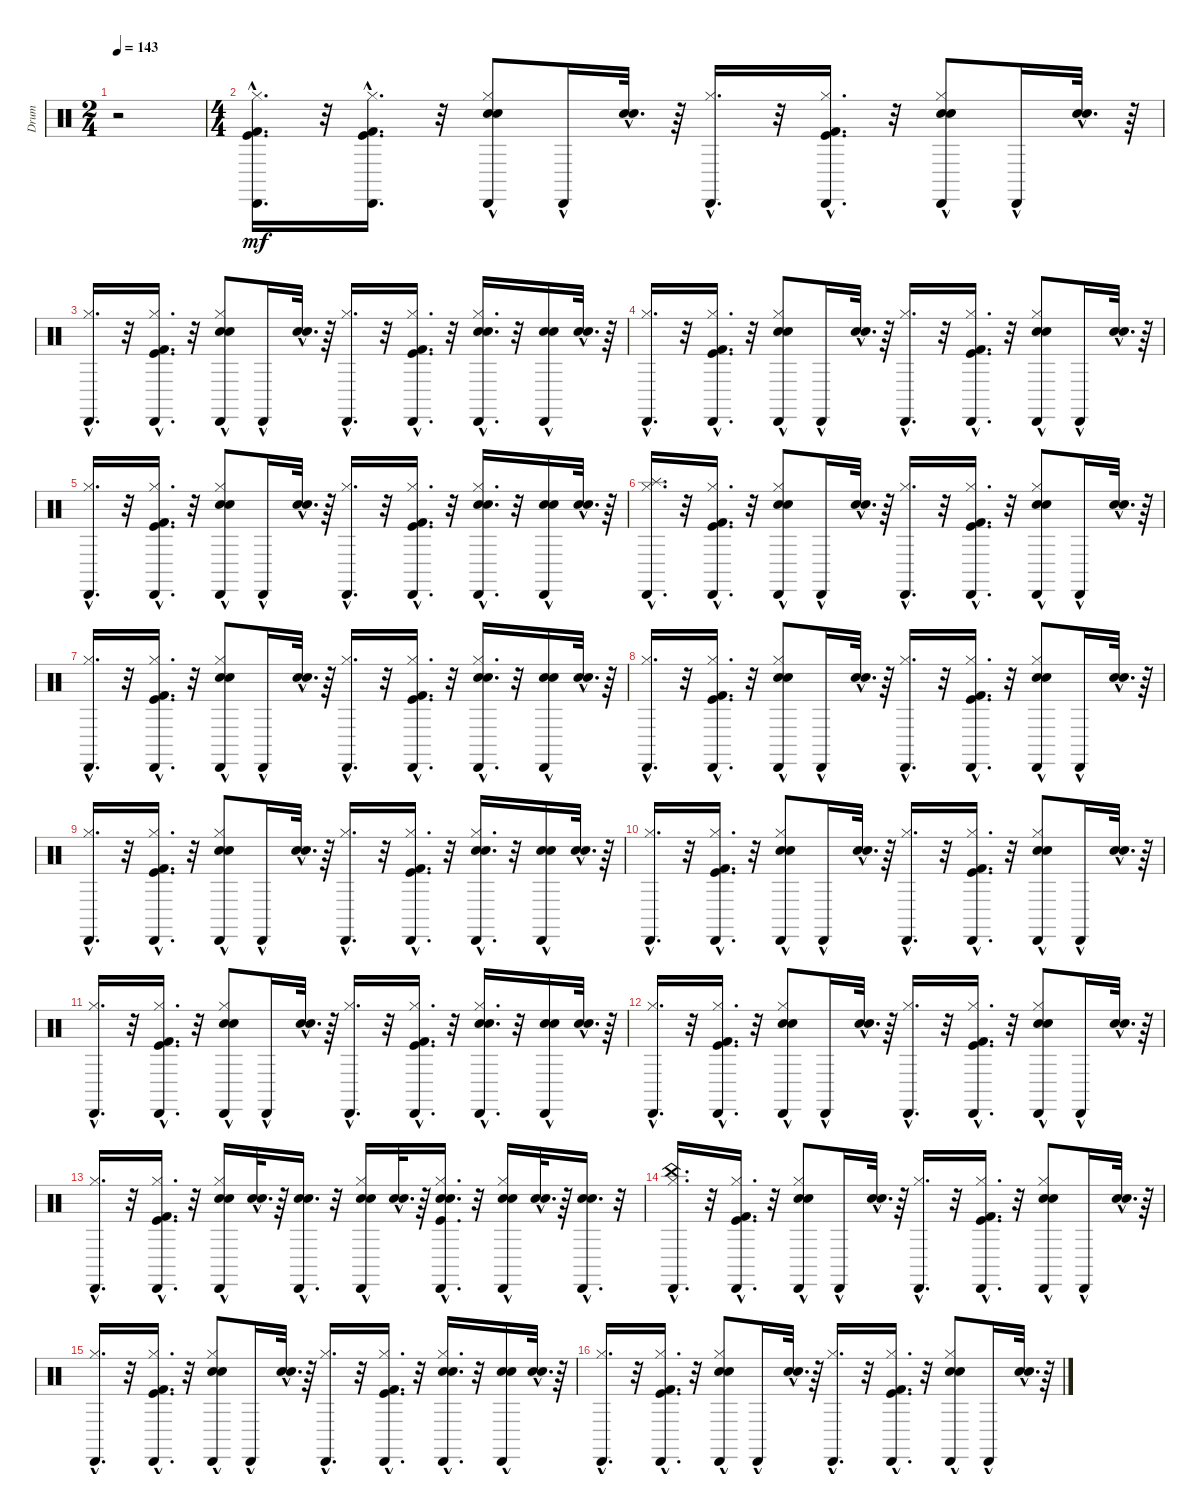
\track ("Drum" "Drum") {instrument percussion}
\staff {score}
\articulation defaults
\ts (2 4)
\tempo 143
\clef neutral
\ks c
r.2{dy mf} |
\ts (4 4)
("Kick (hit) 2"{hac} "Cabasa (hit)"{hac} "Kick (hit)"{hac} "Hi-Hat (closed)"{hac}).16{d} r.32 ("Kick (hit) 2"{hac} "Cabasa (hit)"{hac} "Kick (hit)"{hac} "Hi-Hat (closed)"{hac}).16{d} r.32 ("Electric Snare (hit)" "Cabasa (hit)"{hac} "Snare (hit) 2" "Hi-Hat (closed)").8 "Cabasa (hit)"{hac}.16 ("Electric Snare (hit)"{hac} "Snare (hit) 2"{hac}).32{d} r.64 ("Cabasa (hit)"{hac} "Hi-Hat (closed)"{hac}).16{d} r.32 ("Kick (hit) 2"{hac} "Cabasa (hit)"{hac} "Kick (hit)"{hac} "Hi-Hat (closed)"{hac}).16{d} r.32 ("Electric Snare (hit)" "Cabasa (hit)"{hac} "Snare (hit) 2" "Hi-Hat (closed)").8 "Cabasa (hit)"{hac}.16 ("Electric Snare (hit)"{hac} "Snare (hit) 2"{hac}).32{d} r.64 |
("Cabasa (hit)"{hac} "Hi-Hat (closed)"{hac}).16{d} r.32 ("Kick (hit) 2"{hac} "Cabasa (hit)"{hac} "Hi-Hat (closed)"{hac} "Kick (hit)"{hac}).16{d} r.32 ("Electric Snare (hit)" "Cabasa (hit)"{hac} "Hi-Hat (closed)" "Snare (hit) 2").8 "Cabasa (hit)"{hac}.16 ("Electric Snare (hit)"{hac} "Snare (hit) 2"{hac}).32{d} r.64 ("Cabasa (hit)"{hac} "Hi-Hat (closed)"{hac}).16{d} r.32 ("Kick (hit) 2"{hac} "Cabasa (hit)"{hac} "Hi-Hat (closed)"{hac} "Kick (hit)"{hac}).16{d} r.32 ("Electric Snare (hit)"{hac} "Cabasa (hit)"{hac} "Hi-Hat (closed)"{hac} "Snare (hit) 2"{hac}).16{d} r.32 ("Electric Snare (hit)"{hac} "Cabasa (hit)"{hac} "Snare (hit) 2"{hac}).16 ("Electric Snare (hit)"{hac} "Snare (hit) 2"{hac}).32{d} r.64 |
("Cabasa (hit)"{hac} "Hi-Hat (closed)"{hac}).16{d} r.32 ("Kick (hit) 2"{hac} "Cabasa (hit)"{hac} "Kick (hit)"{hac} "Hi-Hat (closed)"{hac}).16{d} r.32 ("Electric Snare (hit)" "Cabasa (hit)"{hac} "Snare (hit) 2" "Hi-Hat (closed)").8 "Cabasa (hit)"{hac}.16 ("Electric Snare (hit)"{hac} "Snare (hit) 2"{hac}).32{d} r.64 ("Cabasa (hit)"{hac} "Hi-Hat (closed)"{hac}).16{d} r.32 ("Kick (hit) 2"{hac} "Cabasa (hit)"{hac} "Kick (hit)"{hac} "Hi-Hat (closed)"{hac}).16{d} r.32 ("Electric Snare (hit)" "Cabasa (hit)"{hac} "Snare (hit) 2" "Hi-Hat (closed)").8 "Cabasa (hit)"{hac}.16 ("Electric Snare (hit)"{hac} "Snare (hit) 2"{hac}).32{d} r.64 |
("Cabasa (hit)"{hac} "Hi-Hat (closed)"{hac}).16{d} r.32 ("Kick (hit) 2"{hac} "Cabasa (hit)"{hac} "Kick (hit)"{hac} "Hi-Hat (closed)"{hac}).16{d} r.32 ("Electric Snare (hit)" "Cabasa (hit)"{hac} "Snare (hit) 2" "Hi-Hat (closed)").8 "Cabasa (hit)"{hac}.16 ("Electric Snare (hit)"{hac} "Snare (hit) 2"{hac}).32{d} r.64 ("Cabasa (hit)"{hac} "Hi-Hat (closed)"{hac}).16{d} r.32 ("Kick (hit) 2"{hac} "Cabasa (hit)"{hac} "Kick (hit)"{hac} "Hi-Hat (closed)"{hac}).16{d} r.32 ("Electric Snare (hit)"{hac} "Cabasa (hit)"{hac} "Snare (hit) 2"{hac} "Hi-Hat (closed)"{hac}).16{d} r.32 ("Electric Snare (hit)"{hac} "Cabasa (hit)"{hac} "Snare (hit) 2"{hac}).16 ("Electric Snare (hit)"{hac} "Snare (hit) 2"{hac}).32{d} r.64 |
("Splash (hit)"{hac} "Hi-Hat (closed)"{hac} "Cabasa (hit)"{hac}).16{d} r.32 ("Hi-Hat (closed)"{hac} "Kick (hit)"{hac} "Cabasa (hit)"{hac} "Kick (hit) 2"{hac}).16{d} r.32 ("Hi-Hat (closed)" "Snare (hit) 2" "Cabasa (hit)"{hac} "Electric Snare (hit)").8 "Cabasa (hit)"{hac}.16 ("Snare (hit) 2"{hac} "Electric Snare (hit)"{hac}).32{d} r.64 ("Hi-Hat (closed)"{hac} "Cabasa (hit)"{hac}).16{d} r.32 ("Hi-Hat (closed)"{hac} "Kick (hit)"{hac} "Cabasa (hit)"{hac} "Kick (hit) 2"{hac}).16{d} r.32 ("Hi-Hat (closed)" "Snare (hit) 2" "Cabasa (hit)"{hac} "Electric Snare (hit)").8 "Cabasa (hit)"{hac}.16 ("Snare (hit) 2"{hac} "Electric Snare (hit)"{hac}).32{d} r.64 |
("Hi-Hat (closed)"{hac} "Cabasa (hit)"{hac}).16{d} r.32 ("Kick (hit)"{hac} "Hi-Hat (closed)"{hac} "Cabasa (hit)"{hac} "Kick (hit) 2"{hac}).16{d} r.32 ("Snare (hit) 2" "Hi-Hat (closed)" "Cabasa (hit)"{hac} "Electric Snare (hit)").8 "Cabasa (hit)"{hac}.16 ("Snare (hit) 2"{hac} "Electric Snare (hit)"{hac}).32{d} r.64 ("Hi-Hat (closed)"{hac} "Cabasa (hit)"{hac}).16{d} r.32 ("Kick (hit)"{hac} "Hi-Hat (closed)"{hac} "Cabasa (hit)"{hac} "Kick (hit) 2"{hac}).16{d} r.32 ("Snare (hit) 2"{hac} "Hi-Hat (closed)"{hac} "Cabasa (hit)"{hac} "Electric Snare (hit)"{hac}).16{d} r.32 ("Snare (hit) 2"{hac} "Cabasa (hit)"{hac} "Electric Snare (hit)"{hac}).16 ("Snare (hit) 2"{hac} "Electric Snare (hit)"{hac}).32{d} r.64 |
("Hi-Hat (closed)"{hac} "Cabasa (hit)"{hac}).16{d} r.32 ("Hi-Hat (closed)"{hac} "Kick (hit)"{hac} "Cabasa (hit)"{hac} "Kick (hit) 2"{hac}).16{d} r.32 ("Hi-Hat (closed)" "Snare (hit) 2" "Cabasa (hit)"{hac} "Electric Snare (hit)").8 "Cabasa (hit)"{hac}.16 ("Snare (hit) 2"{hac} "Electric Snare (hit)"{hac}).32{d} r.64 ("Hi-Hat (closed)"{hac} "Cabasa (hit)"{hac}).16{d} r.32 ("Hi-Hat (closed)"{hac} "Kick (hit)"{hac} "Cabasa (hit)"{hac} "Kick (hit) 2"{hac}).16{d} r.32 ("Hi-Hat (closed)" "Snare (hit) 2" "Cabasa (hit)"{hac} "Electric Snare (hit)").8 "Cabasa (hit)"{hac}.16 ("Snare (hit) 2"{hac} "Electric Snare (hit)"{hac}).32{d} r.64 |
("Hi-Hat (closed)"{hac} "Cabasa (hit)"{hac}).16{d} r.32 ("Hi-Hat (closed)"{hac} "Kick (hit)"{hac} "Cabasa (hit)"{hac} "Kick (hit) 2"{hac}).16{d} r.32 ("Hi-Hat (closed)" "Snare (hit) 2" "Cabasa (hit)"{hac} "Electric Snare (hit)").8 "Cabasa (hit)"{hac}.16 ("Snare (hit) 2"{hac} "Electric Snare (hit)"{hac}).32{d} r.64 ("Hi-Hat (closed)"{hac} "Cabasa (hit)"{hac}).16{d} r.32 ("Hi-Hat (closed)"{hac} "Kick (hit)"{hac} "Cabasa (hit)"{hac} "Kick (hit) 2"{hac}).16{d} r.32 ("Hi-Hat (closed)"{hac} "Snare (hit) 2"{hac} "Cabasa (hit)"{hac} "Electric Snare (hit)"{hac}).16{d} r.32 ("Snare (hit) 2"{hac} "Cabasa (hit)"{hac} "Electric Snare (hit)"{hac}).16 ("Snare (hit) 2"{hac} "Electric Snare (hit)"{hac}).32{d} r.64 |
("Cabasa (hit)"{hac} "Hi-Hat (closed)"{hac}).16{d} r.32 ("Kick (hit) 2"{hac} "Cabasa (hit)"{hac} "Kick (hit)"{hac} "Hi-Hat (closed)"{hac}).16{d} r.32 ("Electric Snare (hit)" "Cabasa (hit)"{hac} "Snare (hit) 2" "Hi-Hat (closed)").8 "Cabasa (hit)"{hac}.16 ("Electric Snare (hit)"{hac} "Snare (hit) 2"{hac}).32{d} r.64 ("Cabasa (hit)"{hac} "Hi-Hat (closed)"{hac}).16{d} r.32 ("Kick (hit) 2"{hac} "Cabasa (hit)"{hac} "Kick (hit)"{hac} "Hi-Hat (closed)"{hac}).16{d} r.32 ("Electric Snare (hit)" "Cabasa (hit)"{hac} "Snare (hit) 2" "Hi-Hat (closed)").8 "Cabasa (hit)"{hac}.16 ("Electric Snare (hit)"{hac} "Snare (hit) 2"{hac}).32{d} r.64 |
("Cabasa (hit)"{hac} "Hi-Hat (closed)"{hac}).16{d} r.32 ("Kick (hit) 2"{hac} "Cabasa (hit)"{hac} "Hi-Hat (closed)"{hac} "Kick (hit)"{hac}).16{d} r.32 ("Electric Snare (hit)" "Cabasa (hit)"{hac} "Hi-Hat (closed)" "Snare (hit) 2").8 "Cabasa (hit)"{hac}.16 ("Electric Snare (hit)"{hac} "Snare (hit) 2"{hac}).32{d} r.64 ("Cabasa (hit)"{hac} "Hi-Hat (closed)"{hac}).16{d} r.32 ("Kick (hit) 2"{hac} "Cabasa (hit)"{hac} "Hi-Hat (closed)"{hac} "Kick (hit)"{hac}).16{d} r.32 ("Electric Snare (hit)"{hac} "Cabasa (hit)"{hac} "Hi-Hat (closed)"{hac} "Snare (hit) 2"{hac}).16{d} r.32 ("Electric Snare (hit)"{hac} "Cabasa (hit)"{hac} "Snare (hit) 2"{hac}).16 ("Electric Snare (hit)"{hac} "Snare (hit) 2"{hac}).32{d} r.64 |
("Cabasa (hit)"{hac} "Hi-Hat (closed)"{hac}).16{d} r.32 ("Kick (hit) 2"{hac} "Cabasa (hit)"{hac} "Kick (hit)"{hac} "Hi-Hat (closed)"{hac}).16{d} r.32 ("Electric Snare (hit)" "Cabasa (hit)"{hac} "Snare (hit) 2" "Hi-Hat (closed)").8 "Cabasa (hit)"{hac}.16 ("Electric Snare (hit)"{hac} "Snare (hit) 2"{hac}).32{d} r.64 ("Cabasa (hit)"{hac} "Hi-Hat (closed)"{hac}).16{d} r.32 ("Kick (hit) 2"{hac} "Cabasa (hit)"{hac} "Kick (hit)"{hac} "Hi-Hat (closed)"{hac}).16{d} r.32 ("Electric Snare (hit)" "Cabasa (hit)"{hac} "Snare (hit) 2" "Hi-Hat (closed)").8 "Cabasa (hit)"{hac}.16 ("Electric Snare (hit)"{hac} "Snare (hit) 2"{hac}).32{d} r.64 |
("Cabasa (hit)"{hac} "Hi-Hat (closed)"{hac}).16{d} r.32 ("Cabasa (hit)"{hac} "Kick (hit) 2"{hac} "Kick (hit)"{hac} "Hi-Hat (closed)"{hac}).16{d} r.32 ("Cabasa (hit)"{hac} "Electric Snare (hit)"{hac} "Hi-Hat (closed)"{hac} "Snare (hit) 2"{hac}).16 ("Electric Snare (hit)"{hac} "Snare (hit) 2"{hac}).32{d} r.64 ("Cabasa (hit)"{hac} "Electric Snare (hit)"{hac} "Snare (hit) 2"{hac}).16{d} r.32 ("Cabasa (hit)"{hac} "Electric Snare (hit)"{hac} "Hi-Hat (closed)"{hac} "Snare (hit) 2"{hac}).16 ("Electric Snare (hit)"{hac} "Snare (hit) 2"{hac}).32{d} r.64 ("Cabasa (hit)"{hac} "Electric Snare (hit)"{hac} "Kick (hit)"{hac} "Hi-Hat (closed)"{hac} "Snare (hit) 2"{hac}).16{d} r.32 ("Cabasa (hit)"{hac} "Electric Snare (hit)"{hac} "Hi-Hat (closed)"{hac} "Snare (hit) 2"{hac}).16 ("Electric Snare (hit)"{hac} "Snare (hit) 2"{hac}).32{d} r.64 ("Cabasa (hit)"{hac} "Electric Snare (hit)"{hac} "Snare (hit) 2"{hac}).16{d} r.32 |
("China (hit)"{hac} "Cabasa (hit)"{hac} "Hi-Hat (closed)"{hac}).16{d} r.32 ("Kick (hit) 2"{hac} "Cabasa (hit)"{hac} "Kick (hit)"{hac} "Hi-Hat (closed)"{hac}).16{d} r.32 ("Electric Snare (hit)" "Cabasa (hit)"{hac} "Snare (hit) 2" "Hi-Hat (closed)").8 "Cabasa (hit)"{hac}.16 ("Electric Snare (hit)"{hac} "Snare (hit) 2"{hac}).32{d} r.64 ("Cabasa (hit)"{hac} "Hi-Hat (closed)"{hac}).16{d} r.32 ("Kick (hit) 2"{hac} "Cabasa (hit)"{hac} "Kick (hit)"{hac} "Hi-Hat (closed)"{hac}).16{d} r.32 ("Electric Snare (hit)" "Cabasa (hit)"{hac} "Snare (hit) 2" "Hi-Hat (closed)").8 "Cabasa (hit)"{hac}.16 ("Electric Snare (hit)"{hac} "Snare (hit) 2"{hac}).32{d} r.64 |
("Cabasa (hit)"{hac} "Hi-Hat (closed)"{hac}).16{d} r.32 ("Kick (hit) 2"{hac} "Cabasa (hit)"{hac} "Hi-Hat (closed)"{hac} "Kick (hit)"{hac}).16{d} r.32 ("Electric Snare (hit)" "Cabasa (hit)"{hac} "Hi-Hat (closed)" "Snare (hit) 2").8 "Cabasa (hit)"{hac}.16 ("Electric Snare (hit)"{hac} "Snare (hit) 2"{hac}).32{d} r.64 ("Cabasa (hit)"{hac} "Hi-Hat (closed)"{hac}).16{d} r.32 ("Kick (hit) 2"{hac} "Cabasa (hit)"{hac} "Hi-Hat (closed)"{hac} "Kick (hit)"{hac}).16{d} r.32 ("Electric Snare (hit)"{hac} "Cabasa (hit)"{hac} "Hi-Hat (closed)"{hac} "Snare (hit) 2"{hac}).16{d} r.32 ("Electric Snare (hit)"{hac} "Cabasa (hit)"{hac} "Snare (hit) 2"{hac}).16 ("Electric Snare (hit)"{hac} "Snare (hit) 2"{hac}).32{d} r.64 |
("Cabasa (hit)"{hac} "Hi-Hat (closed)"{hac}).16{d} r.32 ("Kick (hit) 2"{hac} "Cabasa (hit)"{hac} "Kick (hit)"{hac} "Hi-Hat (closed)"{hac}).16{d} r.32 ("Electric Snare (hit)" "Cabasa (hit)"{hac} "Snare (hit) 2" "Hi-Hat (closed)").8 "Cabasa (hit)"{hac}.16 ("Electric Snare (hit)"{hac} "Snare (hit) 2"{hac}).32{d} r.64 ("Cabasa (hit)"{hac} "Hi-Hat (closed)"{hac}).16{d} r.32 ("Kick (hit) 2"{hac} "Cabasa (hit)"{hac} "Kick (hit)"{hac} "Hi-Hat (closed)"{hac}).16{d} r.32 ("Electric Snare (hit)" "Cabasa (hit)"{hac} "Snare (hit) 2" "Hi-Hat (closed)").8 "Cabasa (hit)"{hac}.16 ("Electric Snare (hit)"{hac} "Snare (hit) 2"{hac}).32{d} r.64
